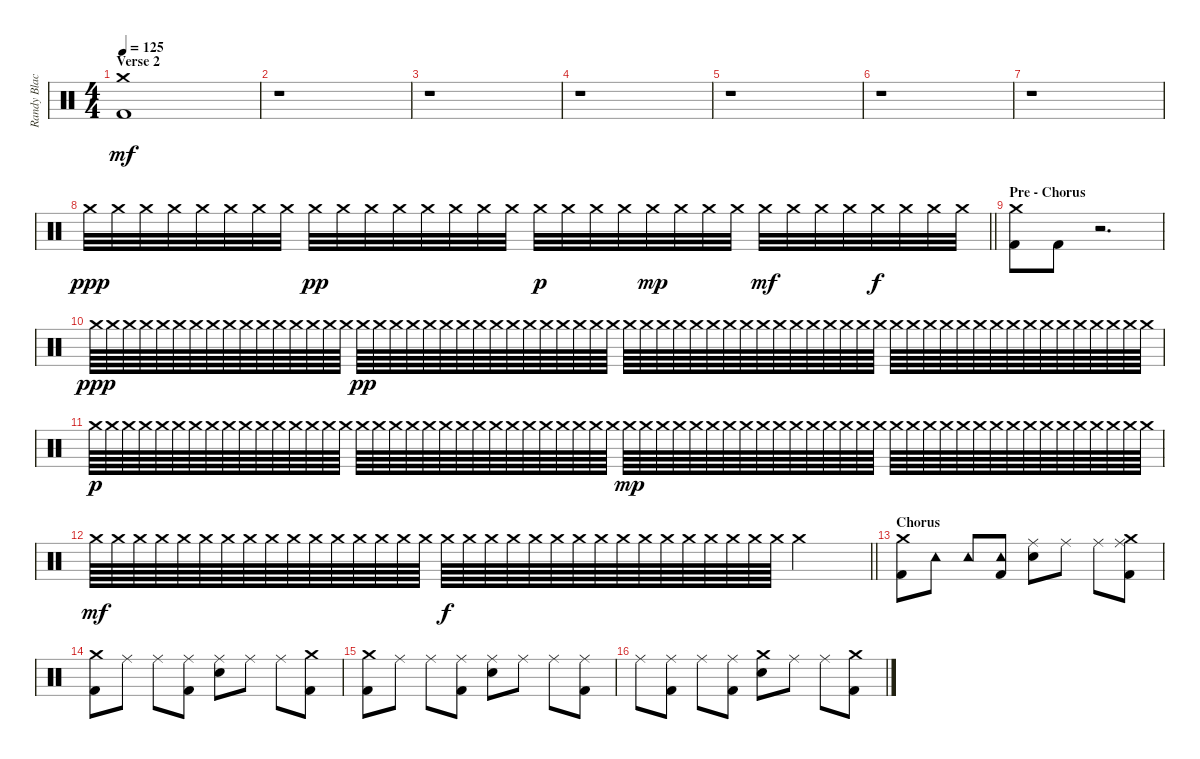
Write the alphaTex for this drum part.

\track ("Randy Black" "Randy Blac") {instrument percussion}
\staff {score}
\articulation defaults
\ts (4 4)
\section ("" "Verse 2")
\tempo 125
\clef neutral
\ks c
("Crash medium (hit)" "Kick (hit) 2").1{dy mf} |
r.1 |
r.1 |
r.1 |
r.1 |
r.1 |
r.1 |
\barLineRight lightlight "Crash medium (hit)".32{dy ppp} "Crash medium (hit)".32 "Crash medium (hit)".32 "Crash medium (hit)".32 "Crash medium (hit)".32 "Crash medium (hit)".32 "Crash medium (hit)".32 "Crash medium (hit)".32 "Crash medium (hit)".32{dy pp} "Crash medium (hit)".32 "Crash medium (hit)".32 "Crash medium (hit)".32 "Crash medium (hit)".32 "Crash medium (hit)".32 "Crash medium (hit)".32 "Crash medium (hit)".32 "Crash medium (hit)".32{dy p} "Crash medium (hit)".32 "Crash medium (hit)".32 "Crash medium (hit)".32 "Crash medium (hit)".32{dy mp} "Crash medium (hit)".32 "Crash medium (hit)".32 "Crash medium (hit)".32 "Crash medium (hit)".32{dy mf} "Crash medium (hit)".32 "Crash medium (hit)".32 "Crash medium (hit)".32 "Crash medium (hit)".32{dy f} "Crash medium (hit)".32 "Crash medium (hit)".32 "Crash medium (hit)".32
|
\section ("" "Pre - Chorus")
("Crash medium (hit)" "Kick (hit) 2").8 "Kick (hit) 2".8 r.2{d} |
"Crash medium (hit)".64{dy ppp} "Crash medium (hit)".64 "Crash medium (hit)".64 "Crash medium (hit)".64 "Crash medium (hit)".64 "Crash medium (hit)".64 "Crash medium (hit)".64 "Crash medium (hit)".64 "Crash medium (hit)".64 "Crash medium (hit)".64 "Crash medium (hit)".64 "Crash medium (hit)".64 "Crash medium (hit)".64 "Crash medium (hit)".64 "Crash medium (hit)".64 "Crash medium (hit)".64 "Crash medium (hit)".64{dy pp} "Crash medium (hit)".64 "Crash medium (hit)".64 "Crash medium (hit)".64 "Crash medium (hit)".64 "Crash medium (hit)".64 "Crash medium (hit)".64 "Crash medium (hit)".64 "Crash medium (hit)".64 "Crash medium (hit)".64 "Crash medium (hit)".64 "Crash medium (hit)".64 "Crash medium (hit)".64 "Crash medium (hit)".64 "Crash medium (hit)".64 "Crash medium (hit)".64 "Crash medium (hit)".64 "Crash medium (hit)".64 "Crash medium (hit)".64 "Crash medium (hit)".64 "Crash medium (hit)".64 "Crash medium (hit)".64 "Crash medium (hit)".64 "Crash medium (hit)".64 "Crash medium (hit)".64 "Crash medium (hit)".64 "Crash medium (hit)".64 "Crash medium (hit)".64 "Crash medium (hit)".64 "Crash medium (hit)".64 "Crash medium (hit)".64 "Crash medium (hit)".64 "Crash medium (hit)".64 "Crash medium (hit)".64 "Crash medium (hit)".64 "Crash medium (hit)".64 "Crash medium (hit)".64 "Crash medium (hit)".64 "Crash medium (hit)".64 "Crash medium (hit)".64 "Crash medium (hit)".64 "Crash medium (hit)".64 "Crash medium (hit)".64 "Crash medium (hit)".64 "Crash medium (hit)".64 "Crash medium (hit)".64 "Crash medium (hit)".64 "Crash medium (hit)".64 |
"Crash medium (hit)".64{dy p} "Crash medium (hit)".64 "Crash medium (hit)".64 "Crash medium (hit)".64 "Crash medium (hit)".64 "Crash medium (hit)".64 "Crash medium (hit)".64 "Crash medium (hit)".64 "Crash medium (hit)".64 "Crash medium (hit)".64 "Crash medium (hit)".64 "Crash medium (hit)".64 "Crash medium (hit)".64 "Crash medium (hit)".64 "Crash medium (hit)".64 "Crash medium (hit)".64 "Crash medium (hit)".64 "Crash medium (hit)".64 "Crash medium (hit)".64 "Crash medium (hit)".64 "Crash medium (hit)".64 "Crash medium (hit)".64 "Crash medium (hit)".64 "Crash medium (hit)".64 "Crash medium (hit)".64 "Crash medium (hit)".64 "Crash medium (hit)".64 "Crash medium (hit)".64 "Crash medium (hit)".64 "Crash medium (hit)".64 "Crash medium (hit)".64 "Crash medium (hit)".64 "Crash medium (hit)".64{dy mp} "Crash medium (hit)".64 "Crash medium (hit)".64 "Crash medium (hit)".64 "Crash medium (hit)".64 "Crash medium (hit)".64 "Crash medium (hit)".64 "Crash medium (hit)".64 "Crash medium (hit)".64 "Crash medium (hit)".64 "Crash medium (hit)".64 "Crash medium (hit)".64 "Crash medium (hit)".64 "Crash medium (hit)".64 "Crash medium (hit)".64 "Crash medium (hit)".64 "Crash medium (hit)".64 "Crash medium (hit)".64 "Crash medium (hit)".64 "Crash medium (hit)".64 "Crash medium (hit)".64 "Crash medium (hit)".64 "Crash medium (hit)".64 "Crash medium (hit)".64 "Crash medium (hit)".64 "Crash medium (hit)".64 "Crash medium (hit)".64 "Crash medium (hit)".64 "Crash medium (hit)".64 "Crash medium (hit)".64 "Crash medium (hit)".64 "Crash medium (hit)".64 |
\barLineRight lightlight "Crash medium (hit)".64{dy mf} "Crash medium (hit)".64 "Crash medium (hit)".64 "Crash medium (hit)".64 "Crash medium (hit)".64 "Crash medium (hit)".64 "Crash medium (hit)".64 "Crash medium (hit)".64 "Crash medium (hit)".64 "Crash medium (hit)".64 "Crash medium (hit)".64 "Crash medium (hit)".64 "Crash medium (hit)".64 "Crash medium (hit)".64 "Crash medium (hit)".64 "Crash medium (hit)".64 "Crash medium (hit)".64{dy f} "Crash medium (hit)".64 "Crash medium (hit)".64 "Crash medium (hit)".64 "Crash medium (hit)".64 "Crash medium (hit)".64 "Crash medium (hit)".64 "Crash medium (hit)".64 "Crash medium (hit)".64 "Crash medium (hit)".64 "Crash medium (hit)".64 "Crash medium (hit)".64 "Crash medium (hit)".64 "Crash medium (hit)".64 "Crash medium (hit)".64 "Crash medium (hit)".64 "Crash medium (hit)".2
|
\section ("" "Chorus")
("Crash medium (hit)" "Kick (hit) 2").8 "Tambourine (hit)".8 "Tambourine (hit)".8 ("Tambourine (hit)" "Kick (hit) 2").8 ("Ride (middle)" "Electric Snare (hit)").8 "Ride (middle)".8 "Ride (middle)".8 ("Crash medium (hit)" "Ride (middle)" "Kick (hit) 2").8 |
("Crash medium (hit)" "Kick (hit) 2").8 "Ride (middle)".8 "Ride (middle)".8 ("Ride (middle)" "Kick (hit) 2").8 ("Ride (middle)" "Electric Snare (hit)").8 "Ride (middle)".8 "Ride (middle)".8 ("Crash medium (hit)" "Kick (hit) 2").8 |
("Crash medium (hit)" "Kick (hit) 2").8 "Ride (middle)".8 "Ride (middle)".8 ("Ride (middle)" "Kick (hit) 2").8 ("Ride (middle)" "Electric Snare (hit)").8 "Ride (middle)".8 "Ride (middle)".8 ("Ride (middle)" "Kick (hit) 2").8 |
"Ride (middle)".8 ("Ride (middle)" "Kick (hit) 2").8 "Ride (middle)".8 ("Ride (middle)" "Kick (hit) 2").8 ("Crash medium (hit)" "Electric Snare (hit)").8 "Ride (middle)".8 "Ride (middle)".8 ("Crash medium (hit)" "Kick (hit) 2").8
